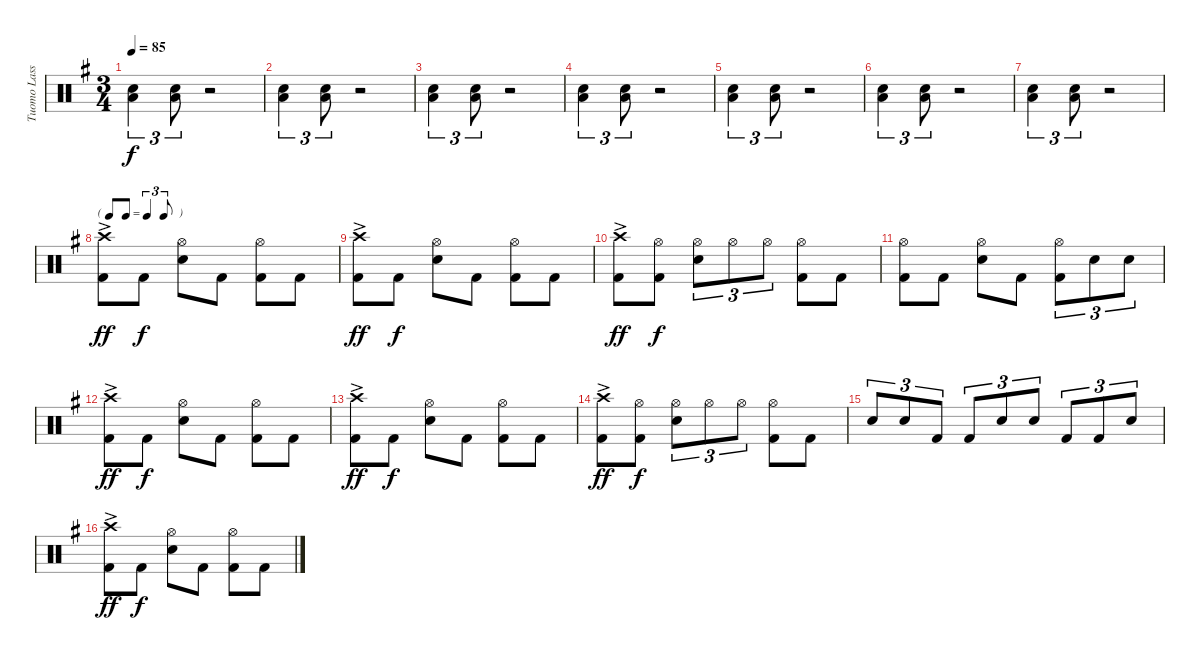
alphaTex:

\track ("Tuomo Lassila" "Tuomo Lass") {instrument percussion}
\staff {score}
\articulation defaults
\ts (3 4)
\tempo 85
\clef neutral
\ks g
("Low Tom (hit)" "Electric Snare (hit)").4{tu (3 2) dy f} ("Low Tom (hit)" "Electric Snare (hit)").8{tu (3 2)} r.2 |
("Low Tom (hit)" "Electric Snare (hit)").4{tu (3 2)} ("Low Tom (hit)" "Electric Snare (hit)").8{tu (3 2)} r.2 |
("Low Tom (hit)" "Electric Snare (hit)").4{tu (3 2)} ("Low Tom (hit)" "Electric Snare (hit)").8{tu (3 2)} r.2 |
("Low Tom (hit)" "Electric Snare (hit)").4{tu (3 2)} ("Low Tom (hit)" "Electric Snare (hit)").8{tu (3 2)} r.2 |
("Low Tom (hit)" "Electric Snare (hit)").4{tu (3 2)} ("Low Tom (hit)" "Electric Snare (hit)").8{tu (3 2)} r.2 |
("Low Tom (hit)" "Electric Snare (hit)").4{tu (3 2)} ("Low Tom (hit)" "Electric Snare (hit)").8{tu (3 2)} r.2 |
("Low Tom (hit)" "Electric Snare (hit)").4{tu (3 2)} ("Low Tom (hit)" "Electric Snare (hit)").8{tu (3 2)} r.2 |
\tf triplet8th
("Crash high (hit)"{ac} "Kick (hit) 2"{ac}).8{dy ff} "Kick (hit) 2".8{dy f} ("Hi-Hat (open)" "Electric Snare (hit)").8 "Kick (hit) 2".8 ("Hi-Hat (open)" "Kick (hit) 2").8 "Kick (hit) 2".8 |
("Crash high (hit)"{ac} "Kick (hit) 2"{ac}).8{dy ff} "Kick (hit) 2".8{dy f} ("Hi-Hat (open)" "Electric Snare (hit)").8 "Kick (hit) 2".8 ("Hi-Hat (open)" "Kick (hit) 2").8 "Kick (hit) 2".8 |
("Crash high (hit)"{ac} "Kick (hit) 2").8{dy ff} ("Hi-Hat (open)" "Kick (hit) 2").8{dy f} ("Hi-Hat (open)" "Electric Snare (hit)").8{tu (3 2)} "Hi-Hat (open)".8{tu (3 2)} "Hi-Hat (open)".8{tu (3 2)} ("Hi-Hat (open)" "Kick (hit) 2").8 "Kick (hit) 2".8 |
("Hi-Hat (open)" "Kick (hit) 2").8 "Kick (hit) 2".8 ("Hi-Hat (open)" "Electric Snare (hit)").8 "Kick (hit) 2".8 ("Hi-Hat (open)" "Kick (hit) 2").8{tu (3 2)} "Electric Snare (hit)".8{tu (3 2)} "Electric Snare (hit)".8{tu (3 2)} |
("Crash high (hit)"{ac} "Kick (hit) 2"{ac}).8{dy ff} "Kick (hit) 2".8{dy f} ("Hi-Hat (open)" "Electric Snare (hit)").8 "Kick (hit) 2".8 ("Hi-Hat (open)" "Kick (hit) 2").8 "Kick (hit) 2".8 |
("Crash high (hit)"{ac} "Kick (hit) 2"{ac}).8{dy ff} "Kick (hit) 2".8{dy f} ("Hi-Hat (open)" "Electric Snare (hit)").8 "Kick (hit) 2".8 ("Hi-Hat (open)" "Kick (hit) 2").8 "Kick (hit) 2".8 |
("Crash high (hit)"{ac} "Kick (hit) 2").8{dy ff} ("Hi-Hat (open)" "Kick (hit) 2").8{dy f} ("Hi-Hat (open)" "Electric Snare (hit)").8{tu (3 2)} "Hi-Hat (open)".8{tu (3 2)} "Hi-Hat (open)".8{tu (3 2)} ("Hi-Hat (open)" "Kick (hit) 2").8 "Kick (hit) 2".8 |
"Electric Snare (hit)".8{tu (3 2)} "Electric Snare (hit)".8{tu (3 2)} "Kick (hit) 2".8{tu (3 2)} "Kick (hit) 2".8{tu (3 2)} "Electric Snare (hit)".8{tu (3 2)} "Electric Snare (hit)".8{tu (3 2)} "Kick (hit) 2".8{tu (3 2)} "Kick (hit) 2".8{tu (3 2)} "Electric Snare (hit)".8{tu (3 2)} |
("Crash high (hit)"{ac} "Kick (hit) 2"{ac}).8{dy ff} "Kick (hit) 2".8{dy f} ("Hi-Hat (open)" "Electric Snare (hit)").8 "Kick (hit) 2".8 ("Hi-Hat (open)" "Kick (hit) 2").8 "Kick (hit) 2".8
